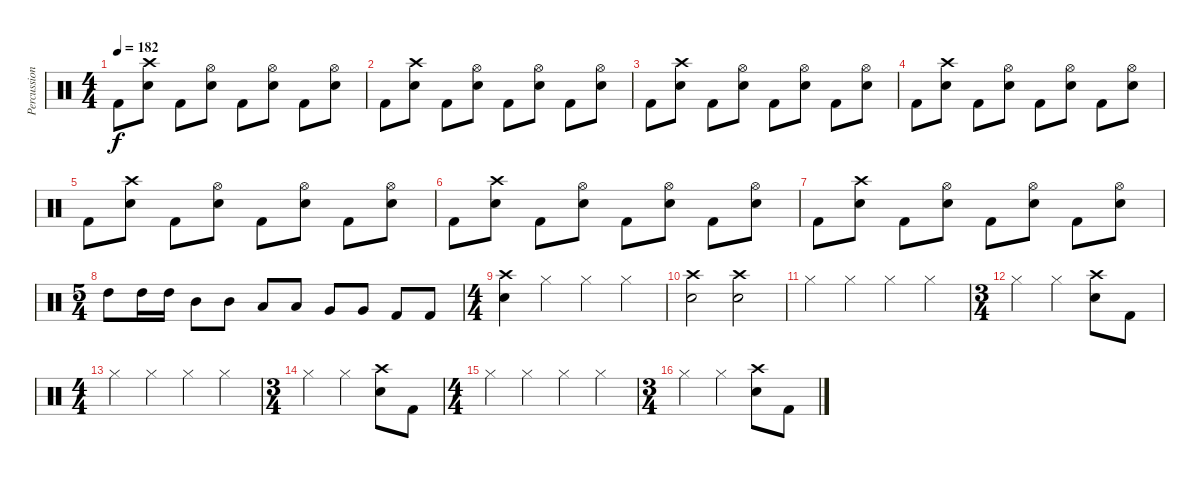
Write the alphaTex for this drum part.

\track ("Percussion" "Percussion") {instrument percussion}
\staff {score}
\articulation defaults
\ts (4 4)
\tempo 182
\clef neutral
\ks c "Kick (hit) 2".8{dy f}
("Crash high (hit)" "Snare (hit) 2").8 "Kick (hit) 2".8 ("Hi-Hat (open)" "Snare (hit) 2").8 "Kick (hit) 2".8 ("Hi-Hat (open)" "Snare (hit) 2").8 "Kick (hit) 2".8 ("Hi-Hat (open)" "Snare (hit) 2").8 |
"Kick (hit) 2".8 ("Crash high (hit)" "Snare (hit) 2").8 "Kick (hit) 2".8 ("Hi-Hat (open)" "Snare (hit) 2").8 "Kick (hit) 2".8 ("Hi-Hat (open)" "Snare (hit) 2").8 "Kick (hit) 2".8 ("Hi-Hat (open)" "Snare (hit) 2").8 |
"Kick (hit) 2".8 ("Crash high (hit)" "Snare (hit) 2").8 "Kick (hit) 2".8 ("Hi-Hat (open)" "Snare (hit) 2").8 "Kick (hit) 2".8 ("Hi-Hat (open)" "Snare (hit) 2").8 "Kick (hit) 2".8 ("Hi-Hat (open)" "Snare (hit) 2").8 |
"Kick (hit) 2".8 ("Crash high (hit)" "Snare (hit) 2").8 "Kick (hit) 2".8 ("Hi-Hat (open)" "Snare (hit) 2").8 "Kick (hit) 2".8 ("Hi-Hat (open)" "Snare (hit) 2").8 "Kick (hit) 2".8 ("Hi-Hat (open)" "Snare (hit) 2").8 |
"Kick (hit) 2".8 ("Crash high (hit)" "Snare (hit) 2").8 "Kick (hit) 2".8 ("Hi-Hat (open)" "Snare (hit) 2").8 "Kick (hit) 2".8 ("Hi-Hat (open)" "Snare (hit) 2").8 "Kick (hit) 2".8 ("Hi-Hat (open)" "Snare (hit) 2").8 |
"Kick (hit) 2".8 ("Crash high (hit)" "Snare (hit) 2").8 "Kick (hit) 2".8 ("Hi-Hat (open)" "Snare (hit) 2").8 "Kick (hit) 2".8 ("Hi-Hat (open)" "Snare (hit) 2").8 "Kick (hit) 2".8 ("Hi-Hat (open)" "Snare (hit) 2").8 |
"Kick (hit) 2".8 ("Crash high (hit)" "Snare (hit) 2").8 "Kick (hit) 2".8 ("Hi-Hat (open)" "Snare (hit) 2").8 "Kick (hit) 2".8 ("Hi-Hat (open)" "Snare (hit) 2").8 "Kick (hit) 2".8 ("Hi-Hat (open)" "Snare (hit) 2").8 |
\ts (5 4)
"High Tom (hit)".8 "High Tom (hit)".16 "High Tom (hit)".16 "Mid Tom (hit)".8 "Mid Tom (hit)".8 "Low Tom (hit)".8 "Low Tom (hit)".8 "Very Low Tom (hit)".8 "Very Low Tom (hit)".8 "Kick (hit) 2".8 "Kick (hit) 2".8 |
\ts (4 4)
("Crash high (hit)" "Snare (hit) 2").4 "Hi-Hat (closed)".4 "Hi-Hat (closed)".4 "Hi-Hat (closed)".4 |
("Crash high (hit)" "Snare (hit) 2").2 ("Crash high (hit)" "Snare (hit) 2").2 |
"Hi-Hat (closed)".4 "Hi-Hat (closed)".4 "Hi-Hat (closed)".4 "Hi-Hat (closed)".4 |
\ts (3 4)
"Hi-Hat (closed)".4 "Hi-Hat (closed)".4 ("Crash high (hit)" "Snare (hit) 2").8 "Kick (hit) 2".8 |
\ts (4 4)
"Hi-Hat (closed)".4 "Hi-Hat (closed)".4 "Hi-Hat (closed)".4 "Hi-Hat (closed)".4 |
\ts (3 4)
"Hi-Hat (closed)".4 "Hi-Hat (closed)".4 ("Crash high (hit)" "Snare (hit) 2").8 "Kick (hit) 2".8 |
\ts (4 4)
"Hi-Hat (closed)".4 "Hi-Hat (closed)".4 "Hi-Hat (closed)".4 "Hi-Hat (closed)".4 |
\ts (3 4)
"Hi-Hat (closed)".4 "Hi-Hat (closed)".4 ("Crash high (hit)" "Snare (hit) 2").8 "Kick (hit) 2".8
